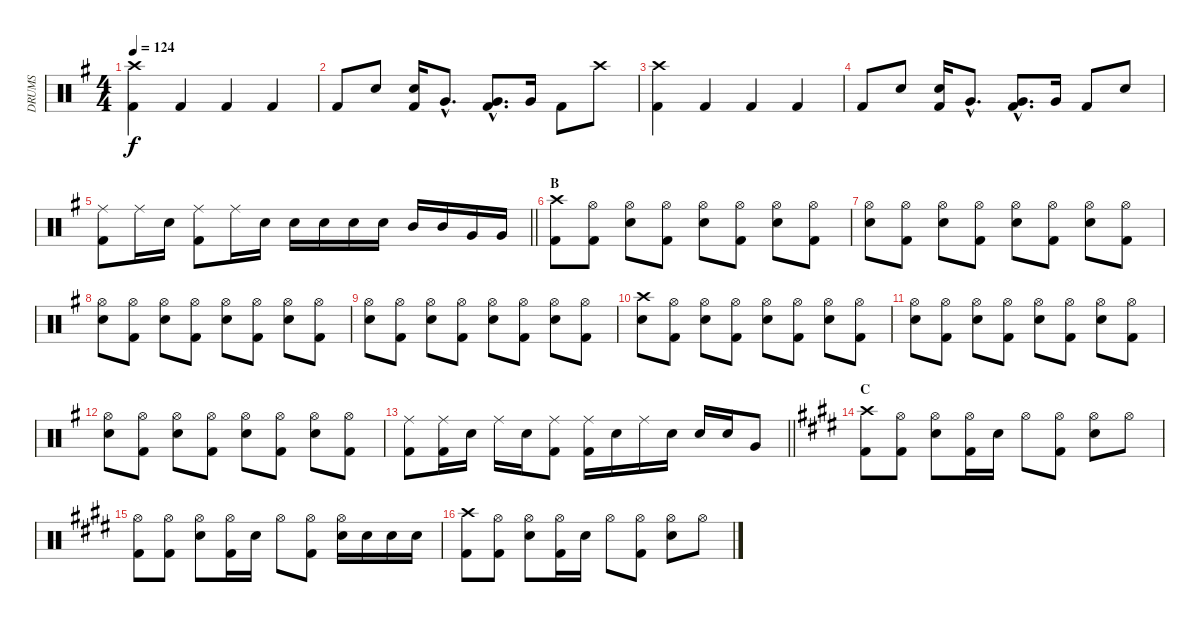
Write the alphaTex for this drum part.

\track ("DRUMS" "DRUMS") {instrument percussion}
\staff {score}
\articulation defaults
\ts (4 4)
\tempo 124
\clef neutral
\ks g
("Crash high (hit)" "Kick (hit) 2").4{dy f} "Kick (hit) 2".4 "Kick (hit) 2".4 "Kick (hit) 2".4 |
"Kick (hit) 2".8 "Snare (hit) 2".8 ("Snare (hit) 2" "Kick (hit) 2").16 "Very Low Tom (hit)"{hac}.8{d} ("Kick (hit) 2"{hac} "Very Low Tom (hit)"{hac}).8{d} "Very Low Tom (hit)".16 "Kick (hit) 2".8 "Crash high (hit)".8 |
("Crash high (hit)" "Kick (hit) 2").4 "Kick (hit) 2".4 "Kick (hit) 2".4 "Kick (hit) 2".4 |
"Kick (hit) 2".8 "Snare (hit) 2".8 ("Snare (hit) 2" "Kick (hit) 2").16 "Very Low Tom (hit)"{hac}.8{d} ("Kick (hit) 2"{hac} "Very Low Tom (hit)"{hac}).8{d} "Very Low Tom (hit)".16 "Kick (hit) 2".8 "Snare (hit) 2".8 |
\barLineRight lightlight
("Ride (middle)" "Kick (hit) 2").8 "Ride (middle)".16 "Snare (hit) 2".16 ("Ride (middle)" "Kick (hit) 2").8 "Ride (middle)".16 "Snare (hit) 2".16 "Snare (hit) 2".16 "Snare (hit) 2".16 "Snare (hit) 2".16 "Snare (hit) 2".16 "Mid Tom (hit)".16 "Mid Tom (hit)".16 "Very Low Tom (hit)".16 "Very Low Tom (hit)".16 |
\section ("" "B")
("Crash high (hit)" "Kick (hit) 2").8 ("Hi-Hat (open)" "Kick (hit) 2").8 ("Hi-Hat (open)" "Snare (hit) 2").8 ("Hi-Hat (open)" "Kick (hit) 2").8 ("Hi-Hat (open)" "Snare (hit) 2").8 ("Hi-Hat (open)" "Kick (hit) 2").8 ("Hi-Hat (open)" "Snare (hit) 2").8 ("Hi-Hat (open)" "Kick (hit) 2").8 |
("Hi-Hat (open)" "Snare (hit) 2").8 ("Hi-Hat (open)" "Kick (hit) 2").8 ("Hi-Hat (open)" "Snare (hit) 2").8 ("Hi-Hat (open)" "Kick (hit) 2").8 ("Hi-Hat (open)" "Snare (hit) 2").8 ("Hi-Hat (open)" "Kick (hit) 2").8 ("Hi-Hat (open)" "Snare (hit) 2").8 ("Hi-Hat (open)" "Kick (hit) 2").8 |
("Hi-Hat (open)" "Snare (hit) 2").8 ("Hi-Hat (open)" "Kick (hit) 2").8 ("Hi-Hat (open)" "Snare (hit) 2").8 ("Hi-Hat (open)" "Kick (hit) 2").8 ("Hi-Hat (open)" "Snare (hit) 2").8 ("Hi-Hat (open)" "Kick (hit) 2").8 ("Hi-Hat (open)" "Snare (hit) 2").8 ("Hi-Hat (open)" "Kick (hit) 2").8 |
("Hi-Hat (open)" "Snare (hit) 2").8 ("Hi-Hat (open)" "Kick (hit) 2").8 ("Hi-Hat (open)" "Snare (hit) 2").8 ("Hi-Hat (open)" "Kick (hit) 2").8 ("Hi-Hat (open)" "Snare (hit) 2").8 ("Hi-Hat (open)" "Kick (hit) 2").8 ("Hi-Hat (open)" "Snare (hit) 2").8 ("Hi-Hat (open)" "Kick (hit) 2").8 |
("Crash high (hit)" "Snare (hit) 2").8 ("Hi-Hat (open)" "Kick (hit) 2").8 ("Hi-Hat (open)" "Snare (hit) 2").8 ("Hi-Hat (open)" "Kick (hit) 2").8 ("Hi-Hat (open)" "Snare (hit) 2").8 ("Hi-Hat (open)" "Kick (hit) 2").8 ("Hi-Hat (open)" "Snare (hit) 2").8 ("Hi-Hat (open)" "Kick (hit) 2").8 |
("Hi-Hat (open)" "Snare (hit) 2").8 ("Hi-Hat (open)" "Kick (hit) 2").8 ("Hi-Hat (open)" "Snare (hit) 2").8 ("Hi-Hat (open)" "Kick (hit) 2").8 ("Hi-Hat (open)" "Snare (hit) 2").8 ("Hi-Hat (open)" "Kick (hit) 2").8 ("Hi-Hat (open)" "Snare (hit) 2").8 ("Hi-Hat (open)" "Kick (hit) 2").8 |
("Hi-Hat (open)" "Snare (hit) 2").8 ("Hi-Hat (open)" "Kick (hit) 2").8 ("Hi-Hat (open)" "Snare (hit) 2").8 ("Hi-Hat (open)" "Kick (hit) 2").8 ("Hi-Hat (open)" "Snare (hit) 2").8 ("Hi-Hat (open)" "Kick (hit) 2").8 ("Hi-Hat (open)" "Snare (hit) 2").8 ("Hi-Hat (open)" "Kick (hit) 2").8 |
\barLineRight lightlight
("Ride (middle)" "Kick (hit) 2").8 ("Ride (middle)" "Kick (hit) 2").16 "Snare (hit) 2".16 "Ride (middle)".16 "Snare (hit) 2".16 ("Ride (middle)" "Kick (hit) 2").8 ("Ride (middle)" "Kick (hit) 2").16 "Snare (hit) 2".16 "Ride (middle)".16 "Snare (hit) 2".16 "Snare (hit) 2".16 "Snare (hit) 2".16 "Very Low Tom (hit)".8 |
\section ("" "C")
\ks e
("Crash high (hit)" "Kick (hit) 2").8 ("Hi-Hat (open)" "Kick (hit) 2").8 ("Hi-Hat (open)" "Snare (hit) 2").8 ("Hi-Hat (open)" "Kick (hit) 2").16 "Snare (hit) 2".16 "Hi-Hat (open)".8 ("Hi-Hat (open)" "Kick (hit) 2").8 ("Hi-Hat (open)" "Snare (hit) 2").8 "Hi-Hat (open)".8 |
("Hi-Hat (open)" "Kick (hit) 2").8 ("Hi-Hat (open)" "Kick (hit) 2").8 ("Hi-Hat (open)" "Snare (hit) 2").8 ("Hi-Hat (open)" "Kick (hit) 2").16 "Snare (hit) 2".16 "Hi-Hat (open)".8 ("Hi-Hat (open)" "Kick (hit) 2").8 ("Hi-Hat (open)" "Snare (hit) 2").16 "Snare (hit) 2".16 "Snare (hit) 2".16 "Snare (hit) 2".16 |
("Crash high (hit)" "Kick (hit) 2").8 ("Hi-Hat (open)" "Kick (hit) 2").8 ("Hi-Hat (open)" "Snare (hit) 2").8 ("Hi-Hat (open)" "Kick (hit) 2").16 "Snare (hit) 2".16 "Hi-Hat (open)".8 ("Hi-Hat (open)" "Kick (hit) 2").8 ("Hi-Hat (open)" "Snare (hit) 2").8 "Hi-Hat (open)".8
